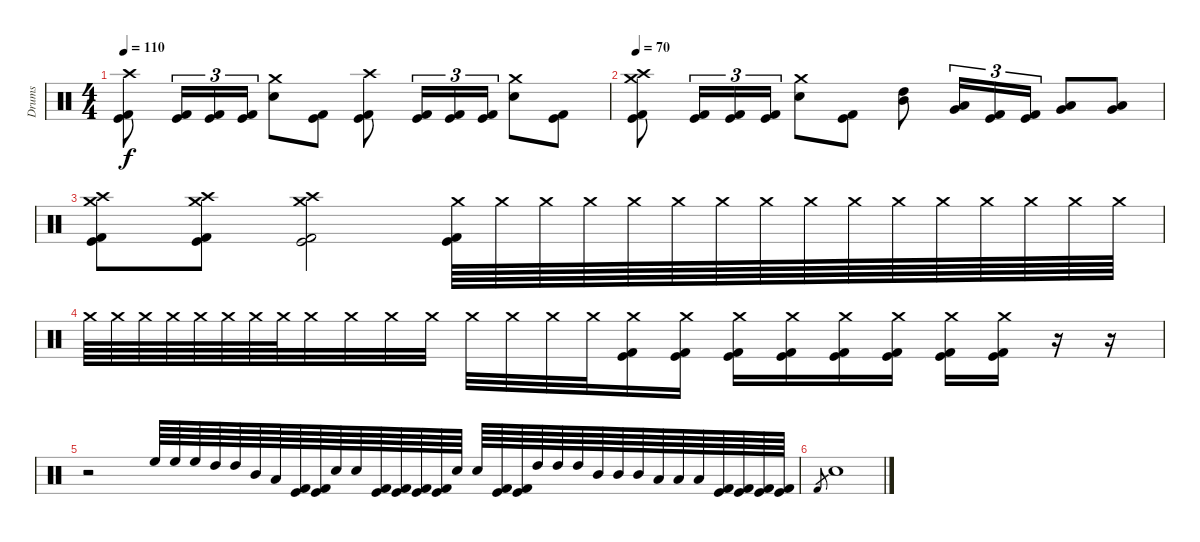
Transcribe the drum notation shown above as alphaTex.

\track ("Drums" "Drums") {instrument percussion}
\staff {score}
\articulation defaults
\ts (4 4)
\tempo 110
\clef neutral
\ks c
("Crash high (hit)" "Kick (hit)" "Kick (hit) 2").8{dy f} ("Kick (hit)" "Kick (hit) 2").16{tu (3 2)} ("Kick (hit)" "Kick (hit) 2").16{tu (3 2)} ("Kick (hit)" "Kick (hit) 2").16{tu (3 2)} ("Crash medium (hit)" "Electric Snare (hit)").8 ("Kick (hit)" "Kick (hit) 2").8 ("Crash high (hit)" "Kick (hit)" "Kick (hit) 2").8 ("Kick (hit)" "Kick (hit) 2").16{tu (3 2)} ("Kick (hit)" "Kick (hit) 2").16{tu (3 2)} ("Kick (hit)" "Kick (hit) 2").16{tu (3 2)} ("Crash medium (hit)" "Electric Snare (hit)").8 ("Kick (hit)" "Kick (hit) 2").8 |
\tempo 70
("Crash high (hit)" "Crash medium (hit)" "Kick (hit)" "Kick (hit) 2").8 ("Kick (hit)" "Kick (hit) 2").16{tu (3 2)} ("Kick (hit)" "Kick (hit) 2").16{tu (3 2)} ("Kick (hit)" "Kick (hit) 2").16{tu (3 2)} ("Crash medium (hit)" "Electric Snare (hit)").8 ("Kick (hit)" "Kick (hit) 2").8 ("High Tom (hit)" "Mid Tom (hit)").8 ("Low Tom (hit)" "Very Low Tom (hit)").16{tu (3 2)} ("Kick (hit)" "Kick (hit) 2").16{tu (3 2)} ("Kick (hit)" "Kick (hit) 2").16{tu (3 2)} ("Very Low Tom (hit)" "Low Floor Tom (hit)").8 ("Very Low Tom (hit)" "Low Floor Tom (hit)").8 |
("Crash medium (hit)" "Crash high (hit)" "Kick (hit)" "Kick (hit) 2").8 ("Crash medium (hit)" "Crash high (hit)" "Kick (hit)" "Kick (hit) 2").8 ("Crash medium (hit)" "Crash high (hit)" "Kick (hit)" "Kick (hit) 2").2 ("Crash medium (hit)" "Kick (hit)" "Kick (hit) 2").64 "Crash medium (hit)".64 "Crash medium (hit)".64 "Crash medium (hit)".64 "Crash medium (hit)".64 "Crash medium (hit)".64 "Crash medium (hit)".64 "Crash medium (hit)".64 "Crash medium (hit)".64 "Crash medium (hit)".64 "Crash medium (hit)".64 "Crash medium (hit)".64 "Crash medium (hit)".64 "Crash medium (hit)".64 "Crash medium (hit)".64 "Crash medium (hit)".64 |
"Crash medium (hit)".64 "Crash medium (hit)".64 "Crash medium (hit)".64 "Crash medium (hit)".64 "Crash medium (hit)".64 "Crash medium (hit)".64 "Crash medium (hit)".64 "Crash medium (hit)".64 "Crash medium (hit)".32 "Crash medium (hit)".32 "Crash medium (hit)".32 "Crash medium (hit)".32 "Crash medium (hit)".32 "Crash medium (hit)".32 "Crash medium (hit)".32 "Crash medium (hit)".32 ("Crash medium (hit)" "Kick (hit)" "Kick (hit) 2").16 ("Crash medium (hit)" "Kick (hit)" "Kick (hit) 2").16 ("Crash medium (hit)" "Kick (hit)" "Kick (hit) 2").16 ("Crash medium (hit)" "Kick (hit)" "Kick (hit) 2").16 ("Crash medium (hit)" "Kick (hit)" "Kick (hit) 2").16 ("Crash medium (hit)" "Kick (hit)" "Kick (hit) 2").16 ("Crash medium (hit)" "Kick (hit)" "Kick (hit) 2").16 ("Crash medium (hit)" "Kick (hit)" "Kick (hit) 2").16 r.16 r.16 |
r.2 "High Floor Tom (hit)".64 "High Floor Tom (hit)".64 "High Floor Tom (hit)".64 "High Tom (hit)".64 "High Tom (hit)".64 "Mid Tom (hit)".64 "Low Tom (hit)".64 ("Kick (hit)" "Kick (hit) 2").64 ("Kick (hit)" "Kick (hit) 2").64 "Electric Snare (hit)".64 "Electric Snare (hit)".64 ("Kick (hit)" "Kick (hit) 2").64 ("Kick (hit)" "Kick (hit) 2").64 ("Kick (hit)" "Kick (hit) 2").64 ("Kick (hit)" "Kick (hit) 2").64 "Electric Snare (hit)".64 "Electric Snare (hit)".64 ("Kick (hit)" "Kick (hit) 2").64 ("Kick (hit)" "Kick (hit) 2").64 "High Tom (hit)".64 "High Tom (hit)".64 "High Tom (hit)".64 "Mid Tom (hit)".64 "Mid Tom (hit)".64 "Mid Tom (hit)".64 "Low Tom (hit)".64 "Low Tom (hit)".64 "Low Tom (hit)".64 ("Kick (hit)" "Kick (hit) 2").64 ("Kick (hit)" "Kick (hit) 2").64 ("Kick (hit)" "Kick (hit) 2").64 ("Kick (hit)" "Kick (hit) 2").64 |
"Kick (hit) 2".8{gr} "Electric Snare (hit)".1
